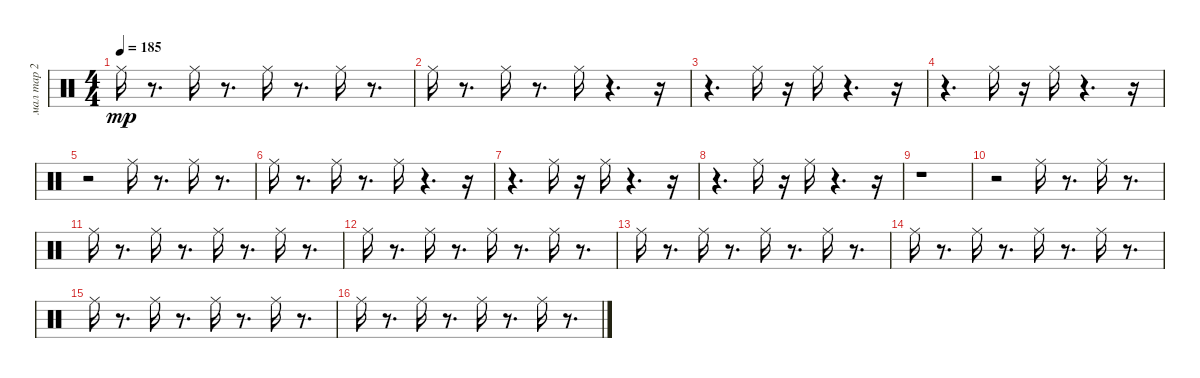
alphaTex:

\track ("мал тар 2" "мал тар 2") {instrument percussion}
\staff {score}
\articulation defaults
\ts (4 4)
\tempo 185
\clef neutral
\ks c "Ride (middle)".16{dy mp}
r.8{d} "Ride (middle)".16 r.8{d} "Ride (middle)".16 r.8{d} "Ride (middle)".16 r.8{d} |
"Ride (middle)".16 r.8{d} "Ride (middle)".16 r.8{d} "Ride (middle)".16 r.4{d} r.16 |
r.4{d} "Ride (middle)".16 r.16 "Ride (middle)".16 r.4{d} r.16 |
r.4{d} "Ride (middle)".16 r.16 "Ride (middle)".16 r.4{d} r.16 |
r.2 "Ride (middle)".16 r.8{d} "Ride (middle)".16 r.8{d} |
"Ride (middle)".16 r.8{d} "Ride (middle)".16 r.8{d} "Ride (middle)".16 r.4{d} r.16 |
r.4{d} "Ride (middle)".16 r.16 "Ride (middle)".16 r.4{d} r.16 |
r.4{d} "Ride (middle)".16 r.16 "Ride (middle)".16 r.4{d} r.16 |
r.1 |
r.2 "Ride (middle)".16 r.8{d} "Ride (middle)".16 r.8{d} |
"Ride (middle)".16 r.8{d} "Ride (middle)".16 r.8{d} "Ride (middle)".16 r.8{d} "Ride (middle)".16 r.8{d} |
"Ride (middle)".16 r.8{d} "Ride (middle)".16 r.8{d} "Ride (middle)".16 r.8{d} "Ride (middle)".16 r.8{d} |
"Ride (middle)".16 r.8{d} "Ride (middle)".16 r.8{d} "Ride (middle)".16 r.8{d} "Ride (middle)".16 r.8{d} |
"Ride (middle)".16 r.8{d} "Ride (middle)".16 r.8{d} "Ride (middle)".16 r.8{d} "Ride (middle)".16 r.8{d} |
"Ride (middle)".16 r.8{d} "Ride (middle)".16 r.8{d} "Ride (middle)".16 r.8{d} "Ride (middle)".16 r.8{d} |
"Ride (middle)".16 r.8{d} "Ride (middle)".16 r.8{d} "Ride (middle)".16 r.8{d} "Ride (middle)".16 r.8{d}
